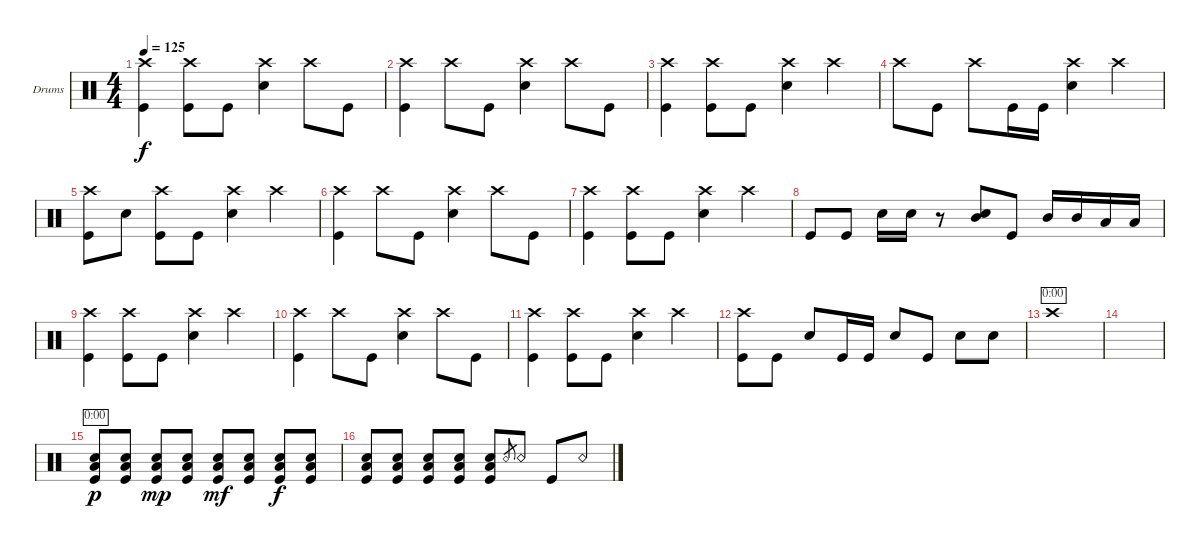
\defaultSystemsLayout 4
\bracketExtendMode groupsimilarinstruments
\firstSystemTrackNameOrientation horizontal
\otherSystemsTrackNameOrientation horizontal
\track ("Drumkit" "Drums") {instrument percussion}
\staff {score}
\articulation defaults
\ts (4 4)
\tempo 125
\clef neutral
\scale
0.333333
\ks c
("Kick (hit)" "Crash high (hit)").4{dy f} ("Kick (hit)" "Crash high (hit)").8 "Kick (hit)".8 ("Snare (hit) 2" "Crash high (hit)").4 "Crash high (hit)".8 "Kick (hit)".8 |
\scale
0.333333 ("Crash high (hit)" "Kick (hit)").4 "Crash high (hit)".8 "Kick (hit)".8 ("Snare (hit) 2" "Crash high (hit)").4 "Crash high (hit)".8 "Kick (hit)".8 |
\scale
0.333333 ("Crash high (hit)" "Kick (hit)").4 ("Kick (hit)" "Crash high (hit)").8 "Kick (hit)".8 ("Snare (hit) 2" "Crash high (hit)").4 "Crash high (hit)".4 |
\scale
0.333333 "Crash high (hit)".8 "Kick (hit)".8 "Crash high (hit)".8 "Kick (hit)".16 "Kick (hit)".16 ("Snare (hit) 2" "Crash high (hit)").4 "Crash high (hit)".4 |
\scale
0.333333 ("Kick (hit)" "Crash high (hit)").8 "Snare (hit) 2".8 ("Kick (hit)" "Crash high (hit)").8 "Kick (hit)".8 ("Snare (hit) 2" "Crash high (hit)").4 "Crash high (hit)".4 |
\scale
0.333333 ("Crash high (hit)" "Kick (hit)").4 "Crash high (hit)".8 "Kick (hit)".8 ("Snare (hit) 2" "Crash high (hit)").4 "Crash high (hit)".8 "Kick (hit)".8 |
\scale
0.333333 ("Crash high (hit)" "Kick (hit)").4 ("Kick (hit)" "Crash high (hit)").8 "Kick (hit)".8 ("Snare (hit) 2" "Crash high (hit)").4 "Crash high (hit)".4 |
\scale
0.333333 "Kick (hit)".8 "Kick (hit)".8 "Snare (hit) 2".16 "Snare (hit) 2".16 r.8 ("Snare (hit) 2" "Mid Tom (hit)").8 "Kick (hit)".8 "Mid Tom (hit)".16 "Mid Tom (hit)".16 "Low Tom (hit)".16 "Low Tom (hit)".16 |
\scale
0.333333 ("Kick (hit)" "Crash high (hit)").4 ("Kick (hit)" "Crash high (hit)").8 "Kick (hit)".8 ("Snare (hit) 2" "Crash high (hit)").4 "Crash high (hit)".4 |
\scale
0.333333 ("Crash high (hit)" "Kick (hit)").4 "Crash high (hit)".8 "Kick (hit)".8 ("Snare (hit) 2" "Crash high (hit)").4 "Crash high (hit)".8 "Kick (hit)".8 |
\scale
0.333333 ("Crash high (hit)" "Kick (hit)").4 ("Kick (hit)" "Crash high (hit)").8 "Kick (hit)".8 ("Snare (hit) 2" "Crash high (hit)").4 "Crash high (hit)".4 |
\scale
0.333333 ("Kick (hit)" "Crash high (hit)").8 "Kick (hit)".8 "Snare (hit) 2".8 "Kick (hit)".16 "Kick (hit)".16 "Snare (hit) 2".8 "Kick (hit)".8 "Snare (hit) 2".8 "Snare (hit) 2".8 |
\scale
0.333333 "Crash high (hit)".1{timer} |
\scale
0.333333 |
\scale
0.333333 ("Snare (hit) 2" "Low Tom (hit)" "Kick (hit)").8{dy p timer} ("Snare (hit) 2" "Low Tom (hit)" "Kick (hit)").8 ("Snare (hit) 2" "Low Tom (hit)" "Kick (hit)").8{dy mp} ("Snare (hit) 2" "Low Tom (hit)" "Kick (hit)").8 ("Snare (hit) 2" "Low Tom (hit)" "Kick (hit)").8{dy mf} ("Snare (hit) 2" "Low Tom (hit)" "Kick (hit)").8 ("Snare (hit) 2" "Low Tom (hit)" "Kick (hit)").8{dy f} ("Snare (hit) 2" "Low Tom (hit)" "Kick (hit)").8 |
\scale
0.333333 ("Snare (hit) 2" "Low Tom (hit)" "Kick (hit)").8 ("Snare (hit) 2" "Low Tom (hit)" "Kick (hit)").8 ("Snare (hit) 2" "Low Tom (hit)" "Kick (hit)").8 ("Snare (hit) 2" "Low Tom (hit)" "Kick (hit)").8 ("Snare (hit) 2" "Low Tom (hit)" "Kick (hit)").8 "Snare (rim shot)".8{gr} "Snare (rim shot)".8 "Kick (hit)".8 "Snare (rim shot)".8
